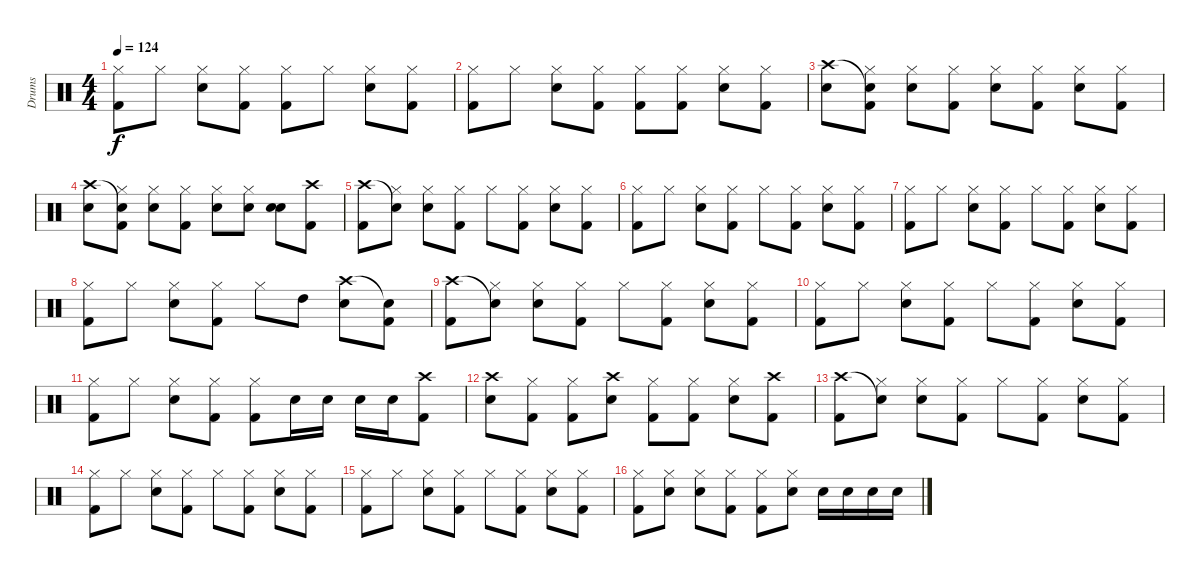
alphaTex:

\track ("Drums" "Drums") {instrument percussion}
\staff {score}
\articulation defaults
\ts (4 4)
\tempo 124
\clef neutral
\ks c
("Hi-Hat (closed)" "Kick (hit) 2").8{dy f} "Hi-Hat (closed)".8 ("Hi-Hat (closed)" "Snare (hit) 2").8 ("Hi-Hat (closed)" "Kick (hit) 2").8 ("Hi-Hat (closed)" "Kick (hit) 2").8 "Hi-Hat (closed)".8 ("Hi-Hat (closed)" "Snare (hit) 2").8 ("Hi-Hat (closed)" "Kick (hit) 2").8 |
("Hi-Hat (closed)" "Kick (hit) 2").8 "Hi-Hat (closed)".8 ("Hi-Hat (closed)" "Snare (hit) 2").8 ("Hi-Hat (closed)" "Kick (hit) 2").8 ("Hi-Hat (closed)" "Kick (hit) 2").8 ("Hi-Hat (closed)" "Kick (hit) 2").8 ("Hi-Hat (closed)" "Snare (hit) 2").8 ("Hi-Hat (closed)" "Kick (hit) 2").8 |
("Crash high (hit)" "Snare (hit) 2").8 ("Snare (hit)"{t} "Hi-Hat (closed)" "Kick (hit) 2").8 ("Hi-Hat (closed)" "Snare (hit) 2").8 ("Hi-Hat (closed)" "Kick (hit) 2").8 ("Hi-Hat (closed)" "Snare (hit) 2").8 ("Hi-Hat (closed)" "Kick (hit) 2").8 ("Hi-Hat (closed)" "Snare (hit) 2").8 ("Hi-Hat (closed)" "Kick (hit) 2").8 |
("Crash high (hit)" "Snare (hit) 2").8 ("Snare (hit)"{t} "Hi-Hat (closed)" "Kick (hit) 2").8 ("Hi-Hat (closed)" "Snare (hit) 2").8 ("Hi-Hat (closed)" "Kick (hit) 2").8 ("Hi-Hat (closed)" "Snare (hit) 2").8 ("Hi-Hat (closed)" "Snare (hit) 2").8 ("Snare (hit) 2" "Snare (hit) 2").8 ("Crash high (hit)" "Kick (hit) 2").8 |
("Crash high (hit)" "Kick (hit) 2").8 ("Snare (hit)"{t} "Hi-Hat (closed)").8 ("Hi-Hat (closed)" "Snare (hit) 2").8 ("Hi-Hat (closed)" "Kick (hit) 2").8 "Hi-Hat (closed)".8 ("Hi-Hat (closed)" "Kick (hit) 2").8 ("Hi-Hat (closed)" "Snare (hit) 2").8 ("Hi-Hat (closed)" "Kick (hit) 2").8 |
("Hi-Hat (closed)" "Kick (hit) 2").8 "Hi-Hat (closed)".8 ("Hi-Hat (closed)" "Snare (hit) 2").8 ("Hi-Hat (closed)" "Kick (hit) 2").8 "Hi-Hat (closed)".8 ("Hi-Hat (closed)" "Kick (hit) 2").8 ("Hi-Hat (closed)" "Snare (hit) 2").8 ("Hi-Hat (closed)" "Kick (hit) 2").8 |
("Hi-Hat (closed)" "Kick (hit) 2").8 "Hi-Hat (closed)".8 ("Hi-Hat (closed)" "Snare (hit) 2").8 ("Hi-Hat (closed)" "Kick (hit) 2").8 "Hi-Hat (closed)".8 ("Hi-Hat (closed)" "Kick (hit) 2").8 ("Hi-Hat (closed)" "Snare (hit) 2").8 ("Hi-Hat (closed)" "Kick (hit) 2").8 |
("Hi-Hat (closed)" "Kick (hit) 2").8 "Hi-Hat (closed)".8 ("Hi-Hat (closed)" "Snare (hit) 2").8 ("Hi-Hat (closed)" "Kick (hit) 2").8 "Hi-Hat (closed)".8 "High Tom (hit)".8 ("Crash high (hit)" "Snare (hit) 2").8 ("Snare (hit)"{t} "Kick (hit) 2").8 |
("Crash high (hit)" "Kick (hit) 2").8 ("Snare (hit)"{t} "Hi-Hat (closed)").8 ("Hi-Hat (closed)" "Snare (hit) 2").8 ("Hi-Hat (closed)" "Kick (hit) 2").8 "Hi-Hat (closed)".8 ("Hi-Hat (closed)" "Kick (hit) 2").8 ("Hi-Hat (closed)" "Snare (hit) 2").8 ("Hi-Hat (closed)" "Kick (hit) 2").8 |
("Hi-Hat (closed)" "Kick (hit) 2").8 "Hi-Hat (closed)".8 ("Hi-Hat (closed)" "Snare (hit) 2").8 ("Hi-Hat (closed)" "Kick (hit) 2").8 "Hi-Hat (closed)".8 ("Hi-Hat (closed)" "Kick (hit) 2").8 ("Hi-Hat (closed)" "Snare (hit) 2").8 ("Hi-Hat (closed)" "Kick (hit) 2").8 |
("Hi-Hat (closed)" "Kick (hit) 2").8 "Hi-Hat (closed)".8 ("Hi-Hat (closed)" "Snare (hit) 2").8 ("Hi-Hat (closed)" "Kick (hit) 2").8 ("Hi-Hat (closed)" "Kick (hit) 2").8 "Snare (hit) 2".16 "Snare (hit) 2".16 "Snare (hit) 2".16 "Snare (hit) 2".16 ("Crash high (hit)" "Kick (hit) 2").8 |
("Crash high (hit)" "Snare (hit) 2").8 ("Hi-Hat (closed)" "Kick (hit) 2").8 ("Hi-Hat (closed)" "Kick (hit) 2").8 ("Crash high (hit)" "Snare (hit) 2").8 ("Hi-Hat (closed)" "Kick (hit) 2").8 ("Hi-Hat (closed)" "Kick (hit) 2").8 ("Hi-Hat (closed)" "Snare (hit) 2").8 ("Crash high (hit)" "Kick (hit) 2").8 |
("Crash high (hit)" "Kick (hit) 2").8 ("Snare (hit)"{t} "Hi-Hat (closed)").8 ("Hi-Hat (closed)" "Snare (hit) 2").8 ("Hi-Hat (closed)" "Kick (hit) 2").8 "Hi-Hat (closed)".8 ("Hi-Hat (closed)" "Kick (hit) 2").8 ("Hi-Hat (closed)" "Snare (hit) 2").8 ("Hi-Hat (closed)" "Kick (hit) 2").8 |
("Hi-Hat (closed)" "Kick (hit) 2").8 "Hi-Hat (closed)".8 ("Hi-Hat (closed)" "Snare (hit) 2").8 ("Hi-Hat (closed)" "Kick (hit) 2").8 "Hi-Hat (closed)".8 ("Hi-Hat (closed)" "Kick (hit) 2").8 ("Hi-Hat (closed)" "Snare (hit) 2").8 ("Hi-Hat (closed)" "Kick (hit) 2").8 |
("Hi-Hat (closed)" "Kick (hit) 2").8 "Hi-Hat (closed)".8 ("Hi-Hat (closed)" "Snare (hit) 2").8 ("Hi-Hat (closed)" "Kick (hit) 2").8 "Hi-Hat (closed)".8 ("Hi-Hat (closed)" "Kick (hit) 2").8 ("Hi-Hat (closed)" "Snare (hit) 2").8 ("Hi-Hat (closed)" "Kick (hit) 2").8 |
("Hi-Hat (closed)" "Kick (hit) 2").8 ("Hi-Hat (closed)" "Snare (hit) 2").8 ("Hi-Hat (closed)" "Snare (hit) 2").8 ("Hi-Hat (closed)" "Kick (hit) 2").8 ("Hi-Hat (closed)" "Kick (hit) 2").8 ("Hi-Hat (closed)" "Snare (hit) 2").8 "Snare (hit) 2".16 "Snare (hit) 2".16 "Snare (hit) 2".16 "Snare (hit) 2".16
